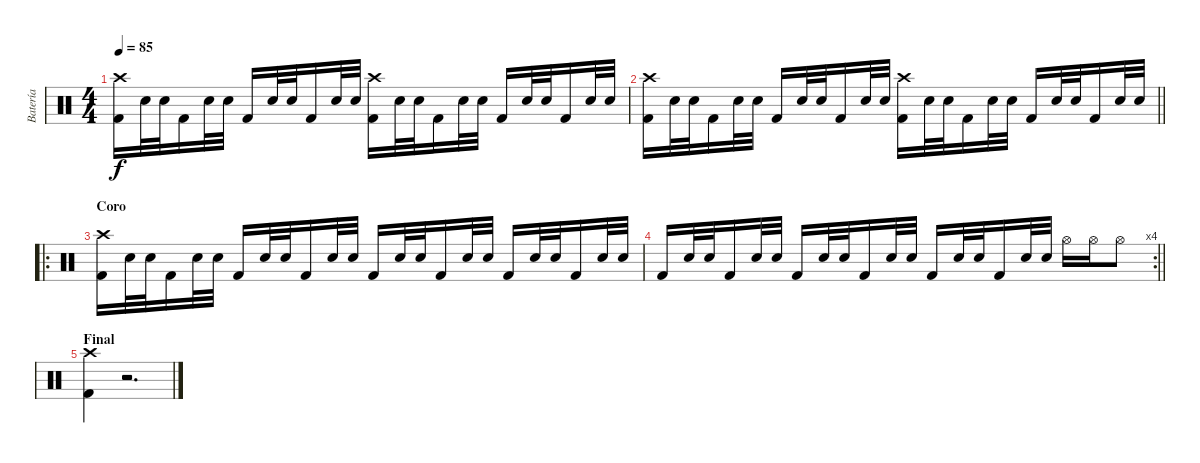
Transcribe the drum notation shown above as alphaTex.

\track ("Batería" "Batería") {instrument percussion}
\staff {score}
\articulation defaults
\ts (4 4)
\tempo 85
\clef neutral
\ks c
("Crash high (hit)" "Kick (hit) 2").16{dy f} "Snare (hit) 2".32 "Electric Snare (hit)".32 "Kick (hit) 2".16 "Snare (hit) 2".32 "Electric Snare (hit)".32 "Kick (hit) 2".16 "Snare (hit) 2".32 "Electric Snare (hit)".32 "Kick (hit) 2".16 "Snare (hit) 2".32 "Electric Snare (hit)".32 ("Crash high (hit)" "Kick (hit) 2").16 "Snare (hit) 2".32 "Electric Snare (hit)".32 "Kick (hit) 2".16 "Snare (hit) 2".32 "Electric Snare (hit)".32 "Kick (hit) 2".16 "Snare (hit) 2".32 "Electric Snare (hit)".32 "Kick (hit) 2".16 "Snare (hit) 2".32 "Electric Snare (hit)".32 |
\barLineRight lightlight
("Crash high (hit)" "Kick (hit) 2").16 "Snare (hit) 2".32 "Electric Snare (hit)".32 "Kick (hit) 2".16 "Snare (hit) 2".32 "Electric Snare (hit)".32 "Kick (hit) 2".16 "Snare (hit) 2".32 "Electric Snare (hit)".32 "Kick (hit) 2".16 "Snare (hit) 2".32 "Electric Snare (hit)".32 ("Crash high (hit)" "Kick (hit) 2").16 "Snare (hit) 2".32 "Electric Snare (hit)".32 "Kick (hit) 2".16 "Snare (hit) 2".32 "Electric Snare (hit)".32 "Kick (hit) 2".16 "Snare (hit) 2".32 "Electric Snare (hit)".32 "Kick (hit) 2".16 "Snare (hit) 2".32 "Electric Snare (hit)".32 |
\ro
\section ("" "Coro")
("Crash high (hit)" "Kick (hit) 2").16 "Snare (hit) 2".32 "Electric Snare (hit)".32 "Kick (hit) 2".16 "Snare (hit) 2".32 "Electric Snare (hit)".32 "Kick (hit) 2".16 "Snare (hit) 2".32 "Electric Snare (hit)".32 "Kick (hit) 2".16 "Snare (hit) 2".32 "Electric Snare (hit)".32 "Kick (hit) 2".16 "Snare (hit) 2".32 "Electric Snare (hit)".32 "Kick (hit) 2".16 "Snare (hit) 2".32 "Electric Snare (hit)".32 "Kick (hit) 2".16 "Snare (hit) 2".32 "Electric Snare (hit)".32 "Kick (hit) 2".16 "Snare (hit) 2".32 "Electric Snare (hit)".32 |
\rc 4
\barLineRight lightlight "Kick (hit) 2".16 "Snare (hit) 2".32 "Electric Snare (hit)".32 "Kick (hit) 2".16 "Snare (hit) 2".32 "Electric Snare (hit)".32 "Kick (hit) 2".16 "Snare (hit) 2".32 "Electric Snare (hit)".32 "Kick (hit) 2".16 "Snare (hit) 2".32 "Electric Snare (hit)".32 "Kick (hit) 2".16 "Snare (hit) 2".32 "Electric Snare (hit)".32 "Kick (hit) 2".16 "Snare (hit) 2".32 "Electric Snare (hit)".32 "Hi-Hat (open)".16 "Hi-Hat (open)".16 "Hi-Hat (open)".8
|
\section ("" "Final")
("Crash high (hit)" "Kick (hit) 2").4 r.2{d}
